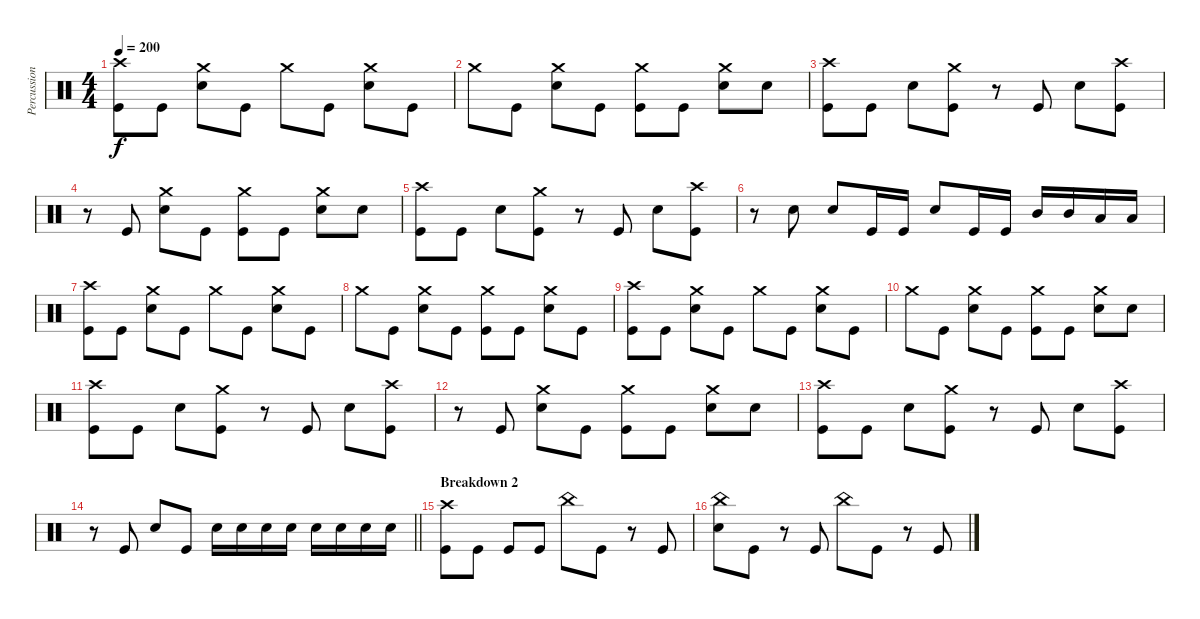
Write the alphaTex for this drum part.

\track ("Percussion" "Percussion") {instrument percussion}
\staff {score}
\articulation defaults
\ts (4 4)
\tempo 200
\clef neutral
\ks c
("Crash high (hit)" "Kick (hit)").8{dy f} "Kick (hit)".8 ("Crash medium (hit)" "Electric Snare (hit)").8 "Kick (hit)".8 "Crash medium (hit)".8 "Kick (hit)".8 ("Crash medium (hit)" "Electric Snare (hit)").8 "Kick (hit)".8 |
"Crash medium (hit)".8 "Kick (hit)".8 ("Crash medium (hit)" "Electric Snare (hit)").8 "Kick (hit)".8 ("Crash medium (hit)" "Kick (hit)").8 "Kick (hit)".8 ("Crash medium (hit)" "Electric Snare (hit)").8 "Electric Snare (hit)".8 |
("Crash high (hit)" "Kick (hit)").8 "Kick (hit)".8 "Electric Snare (hit)".8 ("Crash medium (hit)" "Kick (hit)").8 r.8 "Kick (hit)".8 "Electric Snare (hit)".8 ("Crash high (hit)" "Kick (hit)").8 |
r.8 "Kick (hit)".8 ("Crash medium (hit)" "Electric Snare (hit)").8 "Kick (hit)".8 ("Crash medium (hit)" "Kick (hit)").8 "Kick (hit)".8 ("Crash medium (hit)" "Electric Snare (hit)").8 "Electric Snare (hit)".8 |
("Crash high (hit)" "Kick (hit)").8 "Kick (hit)".8 "Electric Snare (hit)".8 ("Crash medium (hit)" "Kick (hit)").8 r.8 "Kick (hit)".8 "Electric Snare (hit)".8 ("Crash high (hit)" "Kick (hit)").8 |
r.8 "Electric Snare (hit)".8 "Electric Snare (hit)".8 "Kick (hit)".16 "Kick (hit)".16 "Electric Snare (hit)".8 "Kick (hit)".16 "Kick (hit)".16 "Mid Tom (hit)".16 "Mid Tom (hit)".16 "Low Tom (hit)".16 "Low Tom (hit)".16 |
("Crash high (hit)" "Kick (hit)").8 "Kick (hit)".8 ("Crash medium (hit)" "Electric Snare (hit)").8 "Kick (hit)".8 "Crash medium (hit)".8 "Kick (hit)".8 ("Crash medium (hit)" "Electric Snare (hit)").8 "Kick (hit)".8 |
"Crash medium (hit)".8 "Kick (hit)".8 ("Crash medium (hit)" "Electric Snare (hit)").8 "Kick (hit)".8 ("Crash medium (hit)" "Kick (hit)").8 "Kick (hit)".8 ("Crash medium (hit)" "Electric Snare (hit)").8 "Kick (hit)".8 |
("Crash high (hit)" "Kick (hit)").8 "Kick (hit)".8 ("Crash medium (hit)" "Electric Snare (hit)").8 "Kick (hit)".8 "Crash medium (hit)".8 "Kick (hit)".8 ("Crash medium (hit)" "Electric Snare (hit)").8 "Kick (hit)".8 |
"Crash medium (hit)".8 "Kick (hit)".8 ("Crash medium (hit)" "Electric Snare (hit)").8 "Kick (hit)".8 ("Crash medium (hit)" "Kick (hit)").8 "Kick (hit)".8 ("Crash medium (hit)" "Electric Snare (hit)").8 "Electric Snare (hit)".8 |
("Crash high (hit)" "Kick (hit)").8 "Kick (hit)".8 "Electric Snare (hit)".8 ("Crash medium (hit)" "Kick (hit)").8 r.8 "Kick (hit)".8 "Electric Snare (hit)".8 ("Crash high (hit)" "Kick (hit)").8 |
r.8 "Kick (hit)".8 ("Crash medium (hit)" "Electric Snare (hit)").8 "Kick (hit)".8 ("Crash medium (hit)" "Kick (hit)").8 "Kick (hit)".8 ("Crash medium (hit)" "Electric Snare (hit)").8 "Electric Snare (hit)".8 |
("Crash high (hit)" "Kick (hit)").8 "Kick (hit)".8 "Electric Snare (hit)".8 ("Crash medium (hit)" "Kick (hit)").8 r.8 "Kick (hit)".8 "Electric Snare (hit)".8 ("Crash high (hit)" "Kick (hit)").8 |
\barLineRight lightlight
r.8 "Kick (hit)".8 "Electric Snare (hit)".8 "Kick (hit)".8 "Electric Snare (hit)".16 "Electric Snare (hit)".16 "Electric Snare (hit)".16 "Electric Snare (hit)".16 "Electric Snare (hit)".16 "Electric Snare (hit)".16 "Electric Snare (hit)".16 "Electric Snare (hit)".16 |
\section ("" "Breakdown 2")
("Crash high (hit)" "Kick (hit)").8 "Kick (hit)".8 "Kick (hit)".8 "Kick (hit)".8 "China (hit)".8 "Kick (hit)".8 r.8 "Kick (hit)".8 |
("China (hit)" "Electric Snare (hit)").8 "Kick (hit)".8 r.8 "Kick (hit)".8 "China (hit)".8 "Kick (hit)".8 r.8 "Kick (hit)".8
